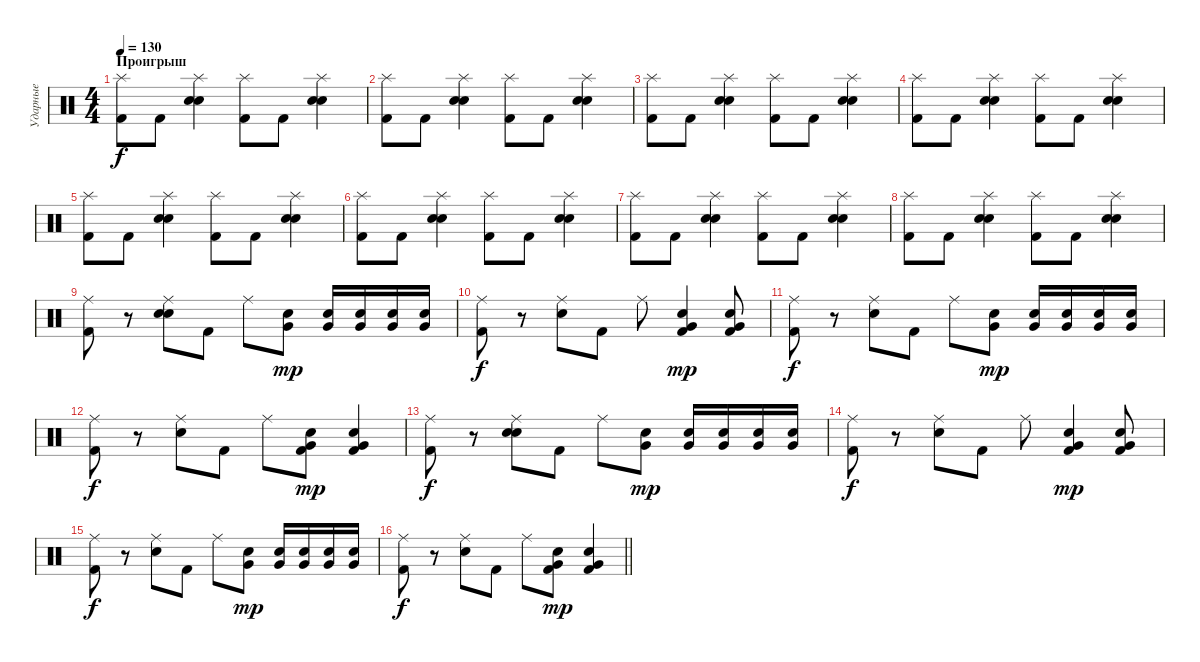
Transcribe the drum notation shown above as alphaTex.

\track ("Ударные" "Ударные") {instrument percussion}
\staff {score}
\articulation defaults
\ts (4 4)
\section ("" "Проигрыш")
\tempo 130
\clef neutral
\ks c
("Splash (hit)" "Kick (hit) 2").8{dy f} "Kick (hit) 2".8 ("Splash (hit)" "Electric Snare (hit)" "Snare (hit) 2").4 ("Splash (hit)" "Kick (hit) 2").8 "Kick (hit) 2".8 ("Splash (hit)" "Electric Snare (hit)" "Snare (hit) 2").4 |
("Splash (hit)" "Kick (hit) 2").8 "Kick (hit) 2".8 ("Splash (hit)" "Electric Snare (hit)" "Snare (hit) 2").4 ("Splash (hit)" "Kick (hit) 2").8 "Kick (hit) 2".8 ("Splash (hit)" "Electric Snare (hit)" "Snare (hit) 2").4 |
("Splash (hit)" "Kick (hit) 2").8 "Kick (hit) 2".8 ("Splash (hit)" "Electric Snare (hit)" "Snare (hit) 2").4 ("Splash (hit)" "Kick (hit) 2").8 "Kick (hit) 2".8 ("Splash (hit)" "Electric Snare (hit)" "Snare (hit) 2").4 |
("Splash (hit)" "Kick (hit) 2").8 "Kick (hit) 2".8 ("Splash (hit)" "Electric Snare (hit)" "Snare (hit) 2").4 ("Splash (hit)" "Kick (hit) 2").8 "Kick (hit) 2".8 ("Splash (hit)" "Electric Snare (hit)" "Snare (hit) 2").4 |
("Splash (hit)" "Kick (hit) 2").8 "Kick (hit) 2".8 ("Splash (hit)" "Electric Snare (hit)" "Snare (hit) 2").4 ("Splash (hit)" "Kick (hit) 2").8 "Kick (hit) 2".8 ("Splash (hit)" "Electric Snare (hit)" "Snare (hit) 2").4 |
("Splash (hit)" "Kick (hit) 2").8 "Kick (hit) 2".8 ("Splash (hit)" "Electric Snare (hit)" "Snare (hit) 2").4 ("Splash (hit)" "Kick (hit) 2").8 "Kick (hit) 2".8 ("Splash (hit)" "Electric Snare (hit)" "Snare (hit) 2").4 |
("Splash (hit)" "Kick (hit) 2").8 "Kick (hit) 2".8 ("Splash (hit)" "Electric Snare (hit)" "Snare (hit) 2").4 ("Splash (hit)" "Kick (hit) 2").8 "Kick (hit) 2".8 ("Splash (hit)" "Electric Snare (hit)" "Snare (hit) 2").4 |
("Splash (hit)" "Kick (hit) 2").8 "Kick (hit) 2".8 ("Splash (hit)" "Electric Snare (hit)" "Snare (hit) 2").4 ("Splash (hit)" "Kick (hit) 2").8 "Kick (hit) 2".8 ("Splash (hit)" "Electric Snare (hit)" "Snare (hit) 2").4 |
("Ride (middle)" "Kick (hit) 2").8 r.8 ("Ride (middle)" "Electric Snare (hit)" "Snare (hit) 2").8 "Kick (hit) 2".8 "Ride (middle)".8 ("Electric Snare (hit)" "Very Low Tom (hit)").8{dy mp} ("Electric Snare (hit)" "Very Low Tom (hit)").16 ("Electric Snare (hit)" "Very Low Tom (hit)").16 ("Electric Snare (hit)" "Very Low Tom (hit)").16 ("Electric Snare (hit)" "Very Low Tom (hit)").16 |
("Ride (middle)" "Kick (hit) 2").8{dy f} r.8 ("Ride (middle)" "Electric Snare (hit)").8 "Kick (hit) 2".8 "Ride (middle)".8 ("Electric Snare (hit)" "Very Low Tom (hit)" "Kick (hit) 2").4{dy mp} ("Electric Snare (hit)" "Very Low Tom (hit)" "Kick (hit) 2").8 |
("Ride (middle)" "Kick (hit) 2").8{dy f} r.8 ("Ride (middle)" "Electric Snare (hit)").8 "Kick (hit) 2".8 "Ride (middle)".8 ("Electric Snare (hit)" "Very Low Tom (hit)").8{dy mp} ("Electric Snare (hit)" "Very Low Tom (hit)").16 ("Electric Snare (hit)" "Very Low Tom (hit)").16 ("Electric Snare (hit)" "Very Low Tom (hit)").16 ("Electric Snare (hit)" "Very Low Tom (hit)").16 |
("Ride (middle)" "Kick (hit) 2").8{dy f} r.8 ("Ride (middle)" "Electric Snare (hit)").8 "Kick (hit) 2".8 "Ride (middle)".8 ("Electric Snare (hit)" "Very Low Tom (hit)" "Kick (hit) 2").8{dy mp} ("Electric Snare (hit)" "Very Low Tom (hit)" "Kick (hit) 2").4 |
("Ride (middle)" "Kick (hit) 2").8{dy f} r.8 ("Ride (middle)" "Electric Snare (hit)" "Snare (hit) 2").8 "Kick (hit) 2".8 "Ride (middle)".8 ("Electric Snare (hit)" "Very Low Tom (hit)").8{dy mp} ("Electric Snare (hit)" "Very Low Tom (hit)").16 ("Electric Snare (hit)" "Very Low Tom (hit)").16 ("Electric Snare (hit)" "Very Low Tom (hit)").16 ("Electric Snare (hit)" "Very Low Tom (hit)").16 |
("Ride (middle)" "Kick (hit) 2").8{dy f} r.8 ("Ride (middle)" "Electric Snare (hit)").8 "Kick (hit) 2".8 "Ride (middle)".8 ("Electric Snare (hit)" "Very Low Tom (hit)" "Kick (hit) 2").4{dy mp} ("Electric Snare (hit)" "Very Low Tom (hit)" "Kick (hit) 2").8 |
("Ride (middle)" "Kick (hit) 2").8{dy f} r.8 ("Ride (middle)" "Electric Snare (hit)").8 "Kick (hit) 2".8 "Ride (middle)".8 ("Electric Snare (hit)" "Very Low Tom (hit)").8{dy mp} ("Electric Snare (hit)" "Very Low Tom (hit)").16 ("Electric Snare (hit)" "Very Low Tom (hit)").16 ("Electric Snare (hit)" "Very Low Tom (hit)").16 ("Electric Snare (hit)" "Very Low Tom (hit)").16 |
\barLineRight lightlight
("Ride (middle)" "Kick (hit) 2").8{dy f} r.8 ("Ride (middle)" "Electric Snare (hit)").8 "Kick (hit) 2".8 "Ride (middle)".8 ("Electric Snare (hit)" "Very Low Tom (hit)" "Kick (hit) 2").8{dy mp} ("Electric Snare (hit)" "Very Low Tom (hit)" "Kick (hit) 2").4
